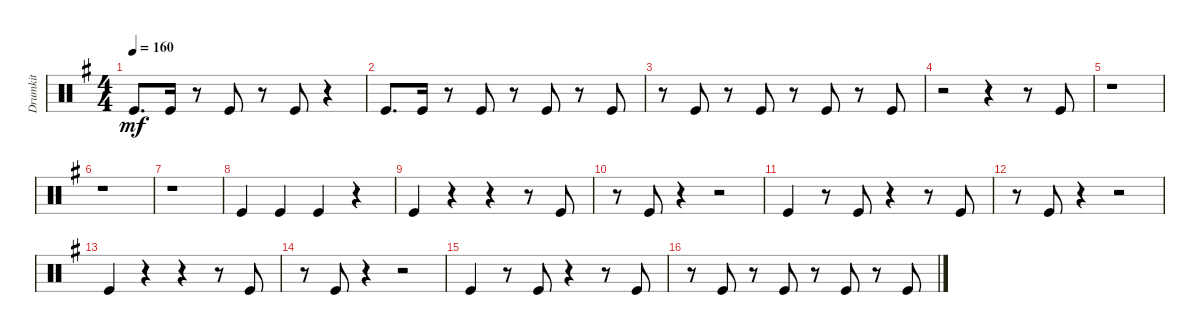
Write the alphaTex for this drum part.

\track ("Drumkit" "Drumkit") {instrument percussion}
\staff {score}
\articulation defaults
\ts (4 4)
\tempo 160
\clef neutral
\ks g "Kick (hit)".8{d dy mf} "Kick (hit)".16
r.8 "Kick (hit)".8 r.8 "Kick (hit)".8 r.4 |
"Kick (hit)".8{d} "Kick (hit)".16 r.8 "Kick (hit)".8 r.8 "Kick (hit)".8 r.8 "Kick (hit)".8 |
r.8 "Kick (hit)".8 r.8 "Kick (hit)".8 r.8 "Kick (hit)".8 r.8 "Kick (hit)".8 |
r.2 r.4 r.8 "Kick (hit)".8 |
r.1 |
r.1 |
r.1 |
"Kick (hit)".4 "Kick (hit)".4 "Kick (hit)".4 r.4 |
"Kick (hit)".4 r.4 r.4 r.8 "Kick (hit)".8 |
r.8 "Kick (hit)".8 r.4 r.2 |
"Kick (hit)".4 r.8 "Kick (hit)".8 r.4 r.8 "Kick (hit)".8 |
r.8 "Kick (hit)".8 r.4 r.2 |
"Kick (hit)".4 r.4 r.4 r.8 "Kick (hit)".8 |
r.8 "Kick (hit)".8 r.4 r.2 |
"Kick (hit)".4 r.8 "Kick (hit)".8 r.4 r.8 "Kick (hit)".8 |
r.8 "Kick (hit)".8 r.8 "Kick (hit)".8 r.8 "Kick (hit)".8 r.8 "Kick (hit)".8
